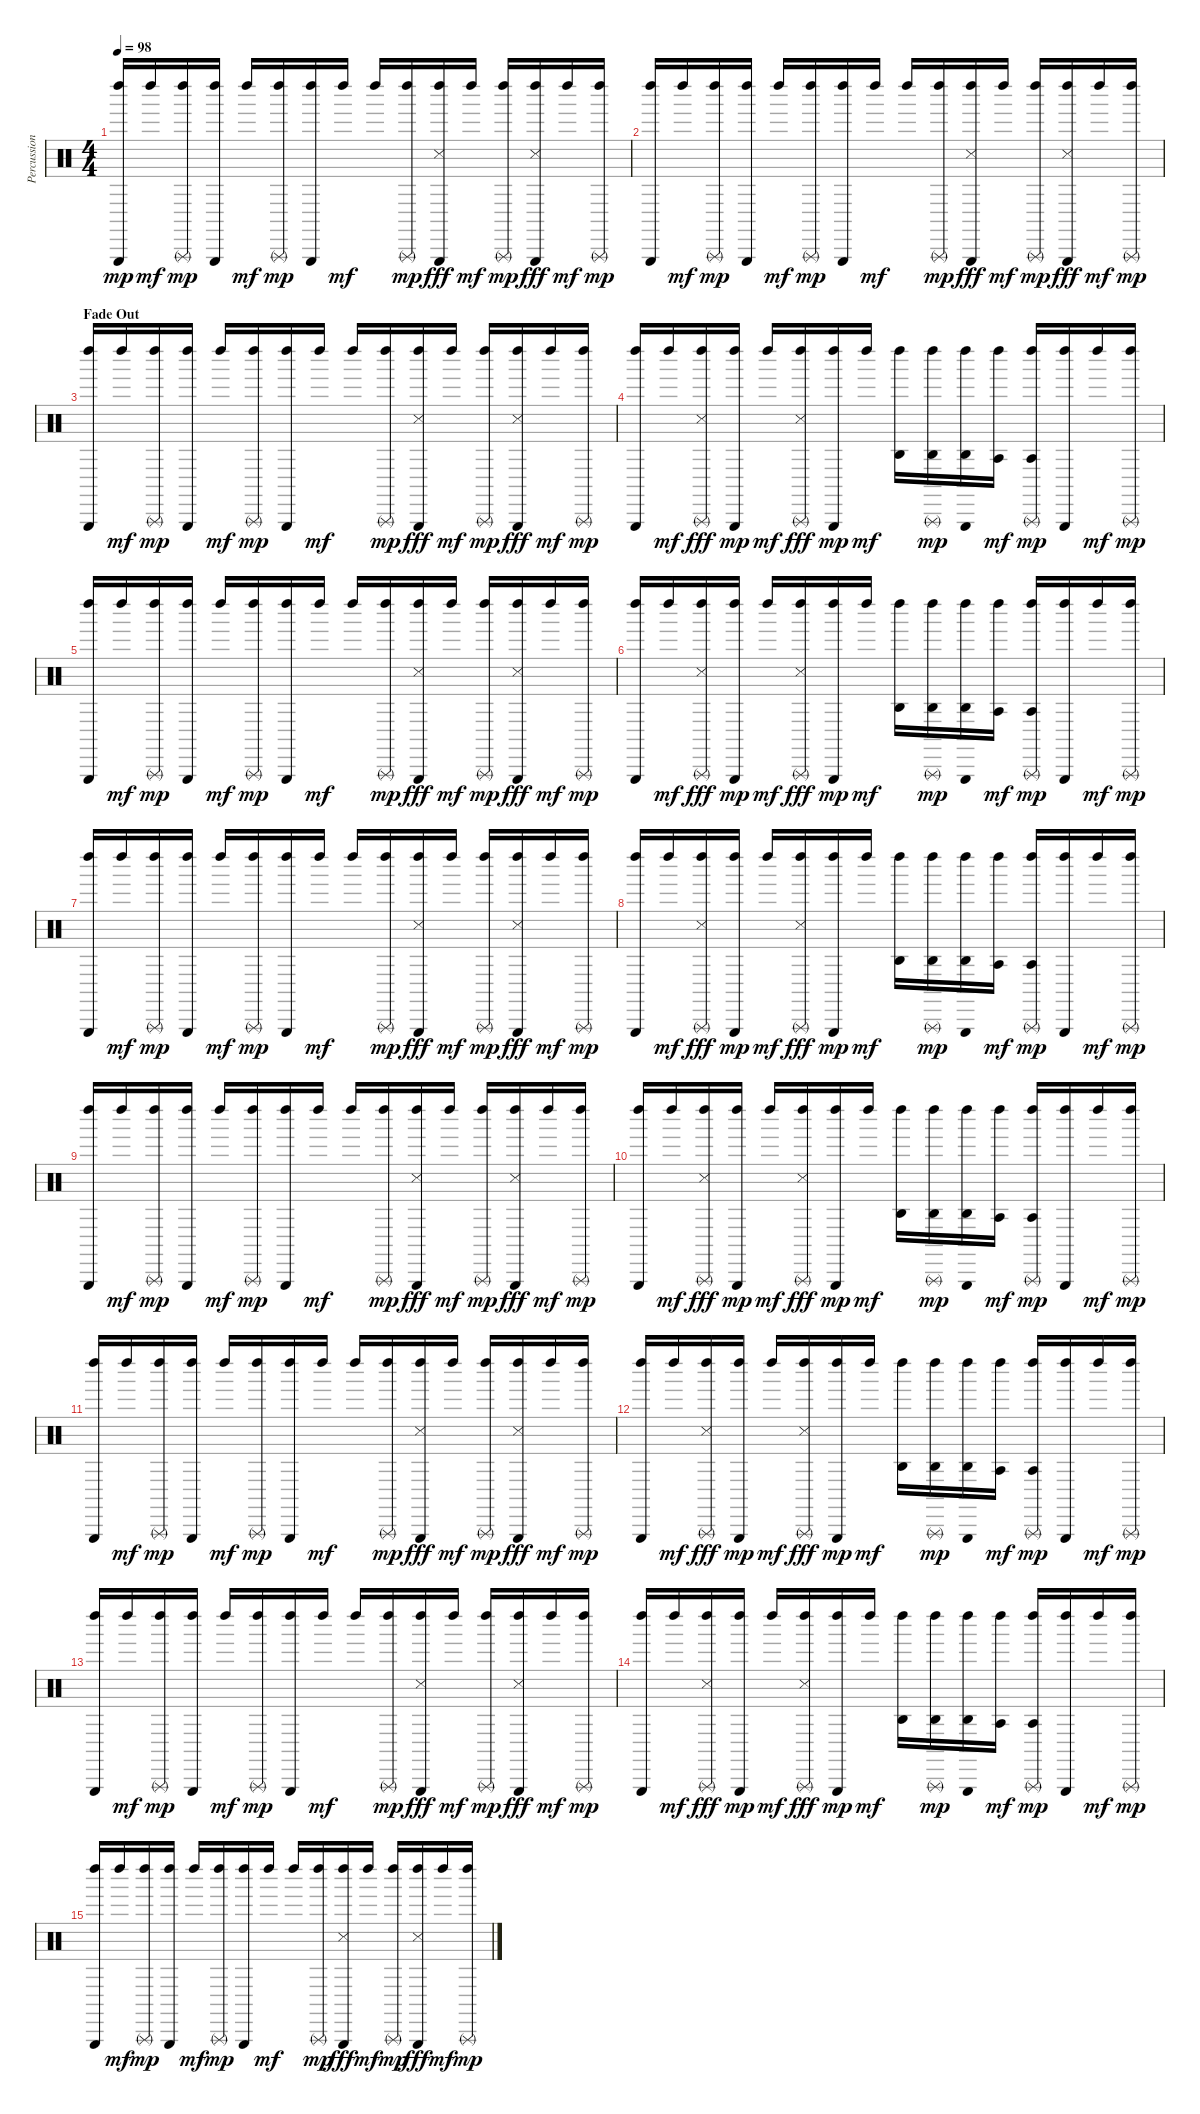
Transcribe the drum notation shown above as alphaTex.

\track ("Percussions" "Percussion") {instrument percussion}
\staff {score}
\articulation defaults
\ts (4 4)
\tempo 98
\clef neutral
\ks c
("Left Maraca (hit)" "Triangle (hit)").16{dy mp} "Left Maraca (hit)".16{dy mf} ("Left Maraca (hit)" "Triangle (rnute)").16{dy mp} ("Left Maraca (hit)" "Triangle (hit)").16 "Left Maraca (hit)".16{dy mf} ("Left Maraca (hit)" "Triangle (rnute)").16{dy mp} ("Left Maraca (hit)" "Triangle (hit)").16 "Left Maraca (hit)".16{dy mf} "Left Maraca (hit)".16 ("Left Maraca (hit)" "Triangle (rnute)").16{dy mp} ("Left Maraca (hit)" "Triangle (hit)" "Snare (side stick) 3").16{dy fff} "Left Maraca (hit)".16{dy mf} ("Left Maraca (hit)" "Triangle (rnute)").16{dy mp} ("Left Maraca (hit)" "Triangle (hit)" "Snare (side stick) 3").16{dy fff} "Left Maraca (hit)".16{dy mf} ("Left Maraca (hit)" "Triangle (rnute)").16{dy mp} |
("Left Maraca (hit)" "Triangle (hit)").16 "Left Maraca (hit)".16{dy mf} ("Left Maraca (hit)" "Triangle (rnute)").16{dy mp} ("Left Maraca (hit)" "Triangle (hit)").16 "Left Maraca (hit)".16{dy mf} ("Left Maraca (hit)" "Triangle (rnute)").16{dy mp} ("Left Maraca (hit)" "Triangle (hit)").16 "Left Maraca (hit)".16{dy mf} "Left Maraca (hit)".16 ("Left Maraca (hit)" "Triangle (rnute)").16{dy mp} ("Left Maraca (hit)" "Triangle (hit)" "Snare (side stick) 3").16{dy fff} "Left Maraca (hit)".16{dy mf} ("Left Maraca (hit)" "Triangle (rnute)").16{dy mp} ("Left Maraca (hit)" "Triangle (hit)" "Snare (side stick) 3").16{dy fff} "Left Maraca (hit)".16{dy mf} ("Left Maraca (hit)" "Triangle (rnute)").16{dy mp} |
\section ("" "Fade Out")
("Left Maraca (hit)" "Triangle (hit)").16 "Left Maraca (hit)".16{dy mf} ("Left Maraca (hit)" "Triangle (rnute)").16{dy mp} ("Left Maraca (hit)" "Triangle (hit)").16 "Left Maraca (hit)".16{dy mf} ("Left Maraca (hit)" "Triangle (rnute)").16{dy mp} ("Left Maraca (hit)" "Triangle (hit)").16 "Left Maraca (hit)".16{dy mf} "Left Maraca (hit)".16 ("Left Maraca (hit)" "Triangle (rnute)").16{dy mp} ("Left Maraca (hit)" "Triangle (hit)" "Snare (side stick) 3").16{dy fff} "Left Maraca (hit)".16{dy mf} ("Left Maraca (hit)" "Triangle (rnute)").16{dy mp} ("Left Maraca (hit)" "Triangle (hit)" "Snare (side stick) 3").16{dy fff} "Left Maraca (hit)".16{dy mf} ("Left Maraca (hit)" "Triangle (rnute)").16{dy mp} |
("Left Maraca (hit)" "Triangle (hit)").16 "Left Maraca (hit)".16{dy mf} ("Left Maraca (hit)" "Triangle (rnute)" "Snare (side stick) 3").16{dy fff} ("Left Maraca (hit)" "Triangle (hit)").16{dy mp} "Left Maraca (hit)".16{dy mf} ("Left Maraca (hit)" "Triangle (rnute)" "Snare (side stick) 3").16{dy fff} ("Left Maraca (hit)" "Triangle (hit)").16{dy mp} "Left Maraca (hit)".16{dy mf} ("Left Maraca (hit)" "Agogo high (hit)").16 ("Left Maraca (hit)" "Triangle (rnute)" "Agogo high (hit)").16{dy mp} ("Left Maraca (hit)" "Triangle (hit)" "Agogo high (hit)").16 ("Left Maraca (hit)" "Agogo tow (hit)").16{dy mf} ("Left Maraca (hit)" "Triangle (rnute)" "Agogo tow (hit)").16{dy mp} ("Left Maraca (hit)" "Triangle (hit)").16 "Left Maraca (hit)".16{dy mf} ("Left Maraca (hit)" "Triangle (rnute)").16{dy mp} |
("Left Maraca (hit)" "Triangle (hit)").16 "Left Maraca (hit)".16{dy mf} ("Left Maraca (hit)" "Triangle (rnute)").16{dy mp} ("Left Maraca (hit)" "Triangle (hit)").16 "Left Maraca (hit)".16{dy mf} ("Left Maraca (hit)" "Triangle (rnute)").16{dy mp} ("Left Maraca (hit)" "Triangle (hit)").16 "Left Maraca (hit)".16{dy mf} "Left Maraca (hit)".16 ("Left Maraca (hit)" "Triangle (rnute)").16{dy mp} ("Left Maraca (hit)" "Triangle (hit)" "Snare (side stick) 3").16{dy fff} "Left Maraca (hit)".16{dy mf} ("Left Maraca (hit)" "Triangle (rnute)").16{dy mp} ("Left Maraca (hit)" "Triangle (hit)" "Snare (side stick) 3").16{dy fff} "Left Maraca (hit)".16{dy mf} ("Left Maraca (hit)" "Triangle (rnute)").16{dy mp} |
("Left Maraca (hit)" "Triangle (hit)").16 "Left Maraca (hit)".16{dy mf} ("Left Maraca (hit)" "Triangle (rnute)" "Snare (side stick) 3").16{dy fff} ("Left Maraca (hit)" "Triangle (hit)").16{dy mp} "Left Maraca (hit)".16{dy mf} ("Left Maraca (hit)" "Triangle (rnute)" "Snare (side stick) 3").16{dy fff} ("Left Maraca (hit)" "Triangle (hit)").16{dy mp} "Left Maraca (hit)".16{dy mf} ("Left Maraca (hit)" "Agogo high (hit)").16 ("Left Maraca (hit)" "Triangle (rnute)" "Agogo high (hit)").16{dy mp} ("Left Maraca (hit)" "Triangle (hit)" "Agogo high (hit)").16 ("Left Maraca (hit)" "Agogo tow (hit)").16{dy mf} ("Left Maraca (hit)" "Triangle (rnute)" "Agogo tow (hit)").16{dy mp} ("Left Maraca (hit)" "Triangle (hit)").16 "Left Maraca (hit)".16{dy mf} ("Left Maraca (hit)" "Triangle (rnute)").16{dy mp} |
("Left Maraca (hit)" "Triangle (hit)").16 "Left Maraca (hit)".16{dy mf} ("Left Maraca (hit)" "Triangle (rnute)").16{dy mp} ("Left Maraca (hit)" "Triangle (hit)").16 "Left Maraca (hit)".16{dy mf} ("Left Maraca (hit)" "Triangle (rnute)").16{dy mp} ("Left Maraca (hit)" "Triangle (hit)").16 "Left Maraca (hit)".16{dy mf} "Left Maraca (hit)".16 ("Left Maraca (hit)" "Triangle (rnute)").16{dy mp} ("Left Maraca (hit)" "Triangle (hit)" "Snare (side stick) 3").16{dy fff} "Left Maraca (hit)".16{dy mf} ("Left Maraca (hit)" "Triangle (rnute)").16{dy mp} ("Left Maraca (hit)" "Triangle (hit)" "Snare (side stick) 3").16{dy fff} "Left Maraca (hit)".16{dy mf} ("Left Maraca (hit)" "Triangle (rnute)").16{dy mp} |
("Left Maraca (hit)" "Triangle (hit)").16 "Left Maraca (hit)".16{dy mf} ("Left Maraca (hit)" "Triangle (rnute)" "Snare (side stick) 3").16{dy fff} ("Left Maraca (hit)" "Triangle (hit)").16{dy mp} "Left Maraca (hit)".16{dy mf} ("Left Maraca (hit)" "Triangle (rnute)" "Snare (side stick) 3").16{dy fff} ("Left Maraca (hit)" "Triangle (hit)").16{dy mp} "Left Maraca (hit)".16{dy mf} ("Left Maraca (hit)" "Agogo high (hit)").16 ("Left Maraca (hit)" "Triangle (rnute)" "Agogo high (hit)").16{dy mp} ("Left Maraca (hit)" "Triangle (hit)" "Agogo high (hit)").16 ("Left Maraca (hit)" "Agogo tow (hit)").16{dy mf} ("Left Maraca (hit)" "Triangle (rnute)" "Agogo tow (hit)").16{dy mp} ("Left Maraca (hit)" "Triangle (hit)").16 "Left Maraca (hit)".16{dy mf} ("Left Maraca (hit)" "Triangle (rnute)").16{dy mp} |
("Left Maraca (hit)" "Triangle (hit)").16 "Left Maraca (hit)".16{dy mf} ("Left Maraca (hit)" "Triangle (rnute)").16{dy mp} ("Left Maraca (hit)" "Triangle (hit)").16 "Left Maraca (hit)".16{dy mf} ("Left Maraca (hit)" "Triangle (rnute)").16{dy mp} ("Left Maraca (hit)" "Triangle (hit)").16 "Left Maraca (hit)".16{dy mf} "Left Maraca (hit)".16 ("Left Maraca (hit)" "Triangle (rnute)").16{dy mp} ("Left Maraca (hit)" "Triangle (hit)" "Snare (side stick) 3").16{dy fff} "Left Maraca (hit)".16{dy mf} ("Left Maraca (hit)" "Triangle (rnute)").16{dy mp} ("Left Maraca (hit)" "Triangle (hit)" "Snare (side stick) 3").16{dy fff} "Left Maraca (hit)".16{dy mf} ("Left Maraca (hit)" "Triangle (rnute)").16{dy mp} |
("Left Maraca (hit)" "Triangle (hit)").16 "Left Maraca (hit)".16{dy mf} ("Left Maraca (hit)" "Triangle (rnute)" "Snare (side stick) 3").16{dy fff} ("Left Maraca (hit)" "Triangle (hit)").16{dy mp} "Left Maraca (hit)".16{dy mf} ("Left Maraca (hit)" "Triangle (rnute)" "Snare (side stick) 3").16{dy fff} ("Left Maraca (hit)" "Triangle (hit)").16{dy mp} "Left Maraca (hit)".16{dy mf} ("Left Maraca (hit)" "Agogo high (hit)").16 ("Left Maraca (hit)" "Triangle (rnute)" "Agogo high (hit)").16{dy mp} ("Left Maraca (hit)" "Triangle (hit)" "Agogo high (hit)").16 ("Left Maraca (hit)" "Agogo tow (hit)").16{dy mf} ("Left Maraca (hit)" "Triangle (rnute)" "Agogo tow (hit)").16{dy mp} ("Left Maraca (hit)" "Triangle (hit)").16 "Left Maraca (hit)".16{dy mf} ("Left Maraca (hit)" "Triangle (rnute)").16{dy mp} |
("Left Maraca (hit)" "Triangle (hit)").16 "Left Maraca (hit)".16{dy mf} ("Left Maraca (hit)" "Triangle (rnute)").16{dy mp} ("Left Maraca (hit)" "Triangle (hit)").16 "Left Maraca (hit)".16{dy mf} ("Left Maraca (hit)" "Triangle (rnute)").16{dy mp} ("Left Maraca (hit)" "Triangle (hit)").16 "Left Maraca (hit)".16{dy mf} "Left Maraca (hit)".16 ("Left Maraca (hit)" "Triangle (rnute)").16{dy mp} ("Left Maraca (hit)" "Triangle (hit)" "Snare (side stick) 3").16{dy fff} "Left Maraca (hit)".16{dy mf} ("Left Maraca (hit)" "Triangle (rnute)").16{dy mp} ("Left Maraca (hit)" "Triangle (hit)" "Snare (side stick) 3").16{dy fff} "Left Maraca (hit)".16{dy mf} ("Left Maraca (hit)" "Triangle (rnute)").16{dy mp} |
("Left Maraca (hit)" "Triangle (hit)").16{volume 5} "Left Maraca (hit)".16{dy mf} ("Left Maraca (hit)" "Triangle (rnute)" "Snare (side stick) 3").16{dy fff} ("Left Maraca (hit)" "Triangle (hit)").16{dy mp} "Left Maraca (hit)".16{dy mf} ("Left Maraca (hit)" "Triangle (rnute)" "Snare (side stick) 3").16{dy fff} ("Left Maraca (hit)" "Triangle (hit)").16{dy mp} "Left Maraca (hit)".16{dy mf} ("Left Maraca (hit)" "Agogo high (hit)").16 ("Left Maraca (hit)" "Triangle (rnute)" "Agogo high (hit)").16{dy mp} ("Left Maraca (hit)" "Triangle (hit)" "Agogo high (hit)").16 ("Left Maraca (hit)" "Agogo tow (hit)").16{dy mf} ("Left Maraca (hit)" "Triangle (rnute)" "Agogo tow (hit)").16{dy mp} ("Left Maraca (hit)" "Triangle (hit)").16 "Left Maraca (hit)".16{dy mf} ("Left Maraca (hit)" "Triangle (rnute)").16{dy mp} |
("Left Maraca (hit)" "Triangle (hit)").16 "Left Maraca (hit)".16{dy mf} ("Left Maraca (hit)" "Triangle (rnute)").16{dy mp} ("Left Maraca (hit)" "Triangle (hit)").16 "Left Maraca (hit)".16{dy mf} ("Left Maraca (hit)" "Triangle (rnute)").16{dy mp} ("Left Maraca (hit)" "Triangle (hit)").16 "Left Maraca (hit)".16{dy mf} "Left Maraca (hit)".16 ("Left Maraca (hit)" "Triangle (rnute)").16{dy mp} ("Left Maraca (hit)" "Triangle (hit)" "Snare (side stick) 3").16{dy fff} "Left Maraca (hit)".16{dy mf} ("Left Maraca (hit)" "Triangle (rnute)").16{dy mp} ("Left Maraca (hit)" "Triangle (hit)" "Snare (side stick) 3").16{dy fff} "Left Maraca (hit)".16{dy mf} ("Left Maraca (hit)" "Triangle (rnute)").16{dy mp} |
("Left Maraca (hit)" "Triangle (hit)").16{volume 0} "Left Maraca (hit)".16{dy mf} ("Left Maraca (hit)" "Triangle (rnute)" "Snare (side stick) 3").16{dy fff} ("Left Maraca (hit)" "Triangle (hit)").16{dy mp} "Left Maraca (hit)".16{dy mf} ("Left Maraca (hit)" "Triangle (rnute)" "Snare (side stick) 3").16{dy fff} ("Left Maraca (hit)" "Triangle (hit)").16{dy mp} "Left Maraca (hit)".16{dy mf} ("Left Maraca (hit)" "Agogo high (hit)").16 ("Left Maraca (hit)" "Triangle (rnute)" "Agogo high (hit)").16{dy mp} ("Left Maraca (hit)" "Triangle (hit)" "Agogo high (hit)").16 ("Left Maraca (hit)" "Agogo tow (hit)").16{dy mf} ("Left Maraca (hit)" "Triangle (rnute)" "Agogo tow (hit)").16{dy mp} ("Left Maraca (hit)" "Triangle (hit)").16 "Left Maraca (hit)".16{dy mf} ("Left Maraca (hit)" "Triangle (rnute)").16{dy mp} |
("Left Maraca (hit)" "Triangle (hit)").16 "Left Maraca (hit)".16{dy mf} ("Left Maraca (hit)" "Triangle (rnute)").16{dy mp} ("Left Maraca (hit)" "Triangle (hit)").16 "Left Maraca (hit)".16{dy mf} ("Left Maraca (hit)" "Triangle (rnute)").16{dy mp} ("Left Maraca (hit)" "Triangle (hit)").16 "Left Maraca (hit)".16{dy mf} "Left Maraca (hit)".16 ("Left Maraca (hit)" "Triangle (rnute)").16{dy mp} ("Left Maraca (hit)" "Triangle (hit)" "Snare (side stick) 3").16{dy fff} "Left Maraca (hit)".16{dy mf} ("Left Maraca (hit)" "Triangle (rnute)").16{dy mp} ("Left Maraca (hit)" "Triangle (hit)" "Snare (side stick) 3").16{dy fff} "Left Maraca (hit)".16{dy mf} ("Left Maraca (hit)" "Triangle (rnute)").16{dy mp}
